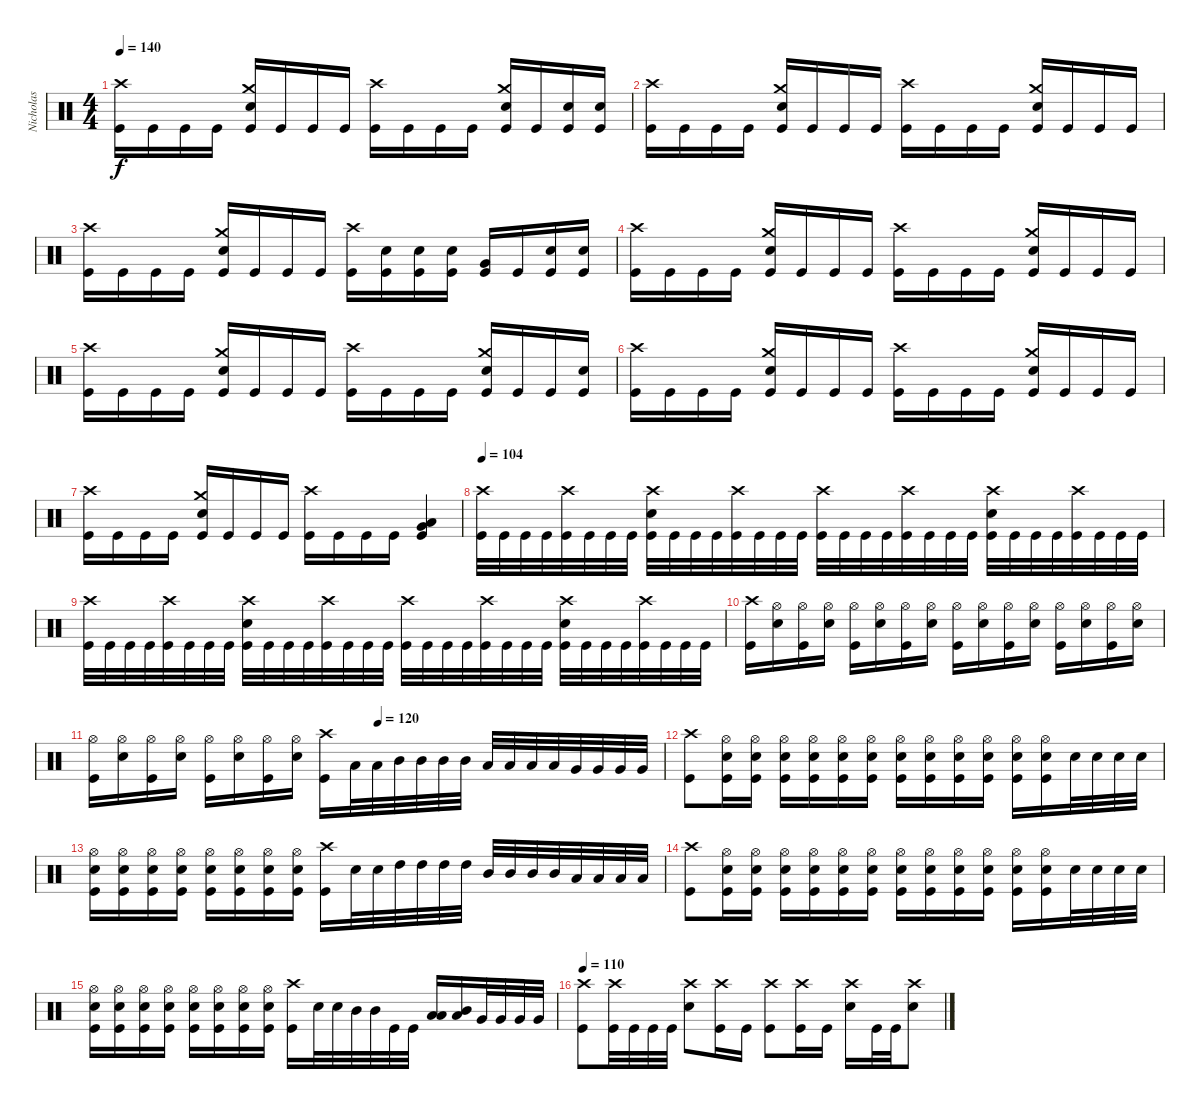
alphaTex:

\track ("Nicholas" "Nicholas") {instrument percussion}
\staff {score}
\articulation defaults
\ts (4 4)
\tempo 140
\clef neutral
\ks c
("Crash high (hit)" "Kick (hit)").16{dy f} "Kick (hit)".16 "Kick (hit)".16 "Kick (hit)".16 ("Crash medium (hit)" "Electric Snare (hit)" "Kick (hit)").16 "Kick (hit)".16 "Kick (hit)".16 "Kick (hit)".16 ("Crash high (hit)" "Kick (hit)").16 "Kick (hit)".16 "Kick (hit)".16 "Kick (hit)".16 ("Crash medium (hit)" "Electric Snare (hit)" "Kick (hit)").16 "Kick (hit)".16 ("Electric Snare (hit)" "Kick (hit)").16 ("Electric Snare (hit)" "Kick (hit)").16 |
("Crash high (hit)" "Kick (hit)").16 "Kick (hit)".16 "Kick (hit)".16 "Kick (hit)".16 ("Crash medium (hit)" "Electric Snare (hit)" "Kick (hit)").16 "Kick (hit)".16 "Kick (hit)".16 "Kick (hit)".16 ("Crash high (hit)" "Kick (hit)").16 "Kick (hit)".16 "Kick (hit)".16 "Kick (hit)".16 ("Crash medium (hit)" "Electric Snare (hit)" "Kick (hit)").16 "Kick (hit)".16 "Kick (hit)".16 "Kick (hit)".16 |
("Crash high (hit)" "Kick (hit)").16 "Kick (hit)".16 "Kick (hit)".16 "Kick (hit)".16 ("Crash medium (hit)" "Electric Snare (hit)" "Kick (hit)").16 "Kick (hit)".16 "Kick (hit)".16 "Kick (hit)".16 ("Crash high (hit)" "Kick (hit)").16 ("Electric Snare (hit)" "Kick (hit)").16 ("Electric Snare (hit)" "Kick (hit)").16 ("Electric Snare (hit)" "Kick (hit)").16 ("Very Low Tom (hit)" "Kick (hit)").16 "Kick (hit)".16 ("Electric Snare (hit)" "Kick (hit)").16 ("Electric Snare (hit)" "Kick (hit)").16 |
("Crash high (hit)" "Kick (hit)").16 "Kick (hit)".16 "Kick (hit)".16 "Kick (hit)".16 ("Crash medium (hit)" "Electric Snare (hit)" "Kick (hit)").16 "Kick (hit)".16 "Kick (hit)".16 "Kick (hit)".16 ("Crash high (hit)" "Kick (hit)").16 "Kick (hit)".16 "Kick (hit)".16 "Kick (hit)".16 ("Crash medium (hit)" "Electric Snare (hit)" "Kick (hit)").16 "Kick (hit)".16 "Kick (hit)".16 "Kick (hit)".16 |
("Crash high (hit)" "Kick (hit)").16 "Kick (hit)".16 "Kick (hit)".16 "Kick (hit)".16 ("Crash medium (hit)" "Electric Snare (hit)" "Kick (hit)").16 "Kick (hit)".16 "Kick (hit)".16 "Kick (hit)".16 ("Crash high (hit)" "Kick (hit)").16 "Kick (hit)".16 "Kick (hit)".16 "Kick (hit)".16 ("Crash medium (hit)" "Electric Snare (hit)" "Kick (hit)").16 "Kick (hit)".16 "Kick (hit)".16 ("Electric Snare (hit)" "Kick (hit)").16 |
("Crash high (hit)" "Kick (hit)").16 "Kick (hit)".16 "Kick (hit)".16 "Kick (hit)".16 ("Crash medium (hit)" "Electric Snare (hit)" "Kick (hit)").16 "Kick (hit)".16 "Kick (hit)".16 "Kick (hit)".16 ("Crash high (hit)" "Kick (hit)").16 "Kick (hit)".16 "Kick (hit)".16 "Kick (hit)".16 ("Crash medium (hit)" "Electric Snare (hit)" "Kick (hit)").16 "Kick (hit)".16 "Kick (hit)".16 "Kick (hit)".16 |
("Crash high (hit)" "Kick (hit)").16 "Kick (hit)".16 "Kick (hit)".16 "Kick (hit)".16 ("Crash medium (hit)" "Electric Snare (hit)" "Kick (hit)").16 "Kick (hit)".16 "Kick (hit)".16 "Kick (hit)".16 ("Crash high (hit)" "Kick (hit)").16 "Kick (hit)".16 "Kick (hit)".16 "Kick (hit)".16 ("Very Low Tom (hit)" "Low Tom (hit)" "Kick (hit)").4{bd 60} |
\tempo 104
("Crash high (hit)" "Kick (hit)").32 "Kick (hit)".32 "Kick (hit)".32 "Kick (hit)".32 ("Crash high (hit)" "Kick (hit)").32 "Kick (hit)".32 "Kick (hit)".32 "Kick (hit)".32 ("Crash high (hit)" "Electric Snare (hit)" "Kick (hit)").32 "Kick (hit)".32 "Kick (hit)".32 "Kick (hit)".32 ("Crash high (hit)" "Kick (hit)").32 "Kick (hit)".32 "Kick (hit)".32 "Kick (hit)".32 ("Crash high (hit)" "Kick (hit)").32 "Kick (hit)".32 "Kick (hit)".32 "Kick (hit)".32 ("Crash high (hit)" "Kick (hit)").32 "Kick (hit)".32 "Kick (hit)".32 "Kick (hit)".32 ("Crash high (hit)" "Electric Snare (hit)" "Kick (hit)").32 "Kick (hit)".32 "Kick (hit)".32 "Kick (hit)".32 ("Crash high (hit)" "Kick (hit)").32 "Kick (hit)".32 "Kick (hit)".32 "Kick (hit)".32 |
("Crash high (hit)" "Kick (hit)").32 "Kick (hit)".32 "Kick (hit)".32 "Kick (hit)".32 ("Crash high (hit)" "Kick (hit)").32 "Kick (hit)".32 "Kick (hit)".32 "Kick (hit)".32 ("Crash high (hit)" "Electric Snare (hit)" "Kick (hit)").32 "Kick (hit)".32 "Kick (hit)".32 "Kick (hit)".32 ("Crash high (hit)" "Kick (hit)").32 "Kick (hit)".32 "Kick (hit)".32 "Kick (hit)".32 ("Crash high (hit)" "Kick (hit)").32 "Kick (hit)".32 "Kick (hit)".32 "Kick (hit)".32 ("Crash high (hit)" "Kick (hit)").32 "Kick (hit)".32 "Kick (hit)".32 "Kick (hit)".32 ("Crash high (hit)" "Electric Snare (hit)" "Kick (hit)").32 "Kick (hit)".32 "Kick (hit)".32 "Kick (hit)".32 ("Crash high (hit)" "Kick (hit)").32 "Kick (hit)".32 "Kick (hit)".32 "Kick (hit)".32 |
("Crash high (hit)" "Kick (hit)").16 ("Hi-Hat (open)" "Electric Snare (hit)").16 ("Hi-Hat (open)" "Kick (hit)").16 ("Hi-Hat (open)" "Electric Snare (hit)").16 ("Hi-Hat (open)" "Kick (hit)").16 ("Hi-Hat (open)" "Electric Snare (hit)").16 ("Hi-Hat (open)" "Kick (hit)").16 ("Hi-Hat (open)" "Electric Snare (hit)").16 ("Hi-Hat (open)" "Kick (hit)").16 ("Hi-Hat (open)" "Electric Snare (hit)").16 ("Hi-Hat (open)" "Kick (hit)").16 ("Hi-Hat (open)" "Electric Snare (hit)").16 ("Hi-Hat (open)" "Kick (hit)").16 ("Hi-Hat (open)" "Electric Snare (hit)").16 ("Hi-Hat (open)" "Kick (hit)").16 ("Hi-Hat (open)" "Electric Snare (hit)").16 |
\tempo (120 0.5)
("Hi-Hat (open)" "Kick (hit)").16 ("Hi-Hat (open)" "Electric Snare (hit)").16 ("Hi-Hat (open)" "Kick (hit)").16 ("Hi-Hat (open)" "Electric Snare (hit)").16 ("Hi-Hat (open)" "Kick (hit)").16 ("Hi-Hat (open)" "Electric Snare (hit)").16 ("Hi-Hat (open)" "Kick (hit)").16 ("Hi-Hat (open)" "Electric Snare (hit)").16 ("Crash high (hit)" "Kick (hit)").16 "Low Tom (hit)".32 "Low Tom (hit)".32 "Mid Tom (hit)".32 "Mid Tom (hit)".32 "Mid Tom (hit)".32 "Mid Tom (hit)".32 "Low Tom (hit)".32 "Low Tom (hit)".32 "Low Tom (hit)".32 "Low Tom (hit)".32 "Very Low Tom (hit)".32 "Very Low Tom (hit)".32 "Very Low Tom (hit)".32 "Very Low Tom (hit)".32 |
("Crash high (hit)" "Kick (hit)").8 ("Hi-Hat (open)" "Electric Snare (hit)" "Kick (hit)").16 ("Hi-Hat (open)" "Electric Snare (hit)" "Kick (hit)").16 ("Hi-Hat (open)" "Electric Snare (hit)" "Kick (hit)").16 ("Hi-Hat (open)" "Electric Snare (hit)" "Kick (hit)").16 ("Hi-Hat (open)" "Electric Snare (hit)" "Kick (hit)").16 ("Hi-Hat (open)" "Electric Snare (hit)" "Kick (hit)").16 ("Hi-Hat (open)" "Electric Snare (hit)" "Kick (hit)").16 ("Hi-Hat (open)" "Electric Snare (hit)" "Kick (hit)").16 ("Hi-Hat (open)" "Electric Snare (hit)" "Kick (hit)").16 ("Hi-Hat (open)" "Electric Snare (hit)" "Kick (hit)").16 ("Hi-Hat (open)" "Electric Snare (hit)" "Kick (hit)").16 ("Hi-Hat (open)" "Electric Snare (hit)" "Kick (hit)").16 "Electric Snare (hit)".32 "Electric Snare (hit)".32 "Electric Snare (hit)".32 "Electric Snare (hit)".32 |
("Hi-Hat (open)" "Electric Snare (hit)" "Kick (hit)").16 ("Hi-Hat (open)" "Electric Snare (hit)" "Kick (hit)").16 ("Hi-Hat (open)" "Electric Snare (hit)" "Kick (hit)").16 ("Hi-Hat (open)" "Electric Snare (hit)" "Kick (hit)").16 ("Hi-Hat (open)" "Electric Snare (hit)" "Kick (hit)").16 ("Hi-Hat (open)" "Electric Snare (hit)" "Kick (hit)").16 ("Hi-Hat (open)" "Electric Snare (hit)" "Kick (hit)").16 ("Hi-Hat (open)" "Electric Snare (hit)" "Kick (hit)").16 ("Crash high (hit)" "Kick (hit)").16 "Electric Snare (hit)".32 "Electric Snare (hit)".32 "High Tom (hit)".32 "High Tom (hit)".32 "High Tom (hit)".32 "High Tom (hit)".32 "Mid Tom (hit)".32 "Mid Tom (hit)".32 "Mid Tom (hit)".32 "Mid Tom (hit)".32 "Low Tom (hit)".32 "Low Tom (hit)".32 "Low Tom (hit)".32 "Low Tom (hit)".32 |
("Crash high (hit)" "Kick (hit)").8 ("Hi-Hat (open)" "Electric Snare (hit)" "Kick (hit)").16 ("Hi-Hat (open)" "Electric Snare (hit)" "Kick (hit)").16 ("Hi-Hat (open)" "Electric Snare (hit)" "Kick (hit)").16 ("Hi-Hat (open)" "Electric Snare (hit)" "Kick (hit)").16 ("Hi-Hat (open)" "Electric Snare (hit)" "Kick (hit)").16 ("Hi-Hat (open)" "Electric Snare (hit)" "Kick (hit)").16 ("Hi-Hat (open)" "Electric Snare (hit)" "Kick (hit)").16 ("Hi-Hat (open)" "Electric Snare (hit)" "Kick (hit)").16 ("Hi-Hat (open)" "Electric Snare (hit)" "Kick (hit)").16 ("Hi-Hat (open)" "Electric Snare (hit)" "Kick (hit)").16 ("Hi-Hat (open)" "Electric Snare (hit)" "Kick (hit)").16 ("Hi-Hat (open)" "Electric Snare (hit)" "Kick (hit)").16 "Electric Snare (hit)".32 "Electric Snare (hit)".32 "Electric Snare (hit)".32 "Electric Snare (hit)".32 |
("Hi-Hat (open)" "Electric Snare (hit)" "Kick (hit)").16 ("Hi-Hat (open)" "Electric Snare (hit)" "Kick (hit)").16 ("Hi-Hat (open)" "Electric Snare (hit)" "Kick (hit)").16 ("Hi-Hat (open)" "Electric Snare (hit)" "Kick (hit)").16 ("Hi-Hat (open)" "Electric Snare (hit)" "Kick (hit)").16 ("Hi-Hat (open)" "Electric Snare (hit)" "Kick (hit)").16 ("Hi-Hat (open)" "Electric Snare (hit)" "Kick (hit)").16 ("Hi-Hat (open)" "Electric Snare (hit)" "Kick (hit)").16 ("Crash high (hit)" "Kick (hit)").16 "Electric Snare (hit)".32 "Electric Snare (hit)".32 "Mid Tom (hit)".32 "Mid Tom (hit)".32 "Kick (hit)".32 "Kick (hit)".32 ("Low Tom (hit)" "Low Floor Tom (hit)").16 ("Mid Tom (hit)" "Low Floor Tom (hit)").16 "Very Low Tom (hit)".32 "Very Low Tom (hit)".32 "Very Low Tom (hit)".32 "Very Low Tom (hit)".32 |
\tempo 110
("Crash high (hit)" "Kick (hit)").8 ("Crash high (hit)" "Kick (hit)").32 "Kick (hit)".32 "Kick (hit)".32 "Kick (hit)".32 ("Crash high (hit)" "Electric Snare (hit)").8 ("Crash high (hit)" "Kick (hit)").16 "Kick (hit)".16 ("Crash high (hit)" "Kick (hit)").8 ("Crash high (hit)" "Kick (hit)").16 "Kick (hit)".16 ("Crash high (hit)" "Electric Snare (hit)").16 "Kick (hit)".32 "Kick (hit)".32 ("Crash high (hit)" "Electric Snare (hit)").8
